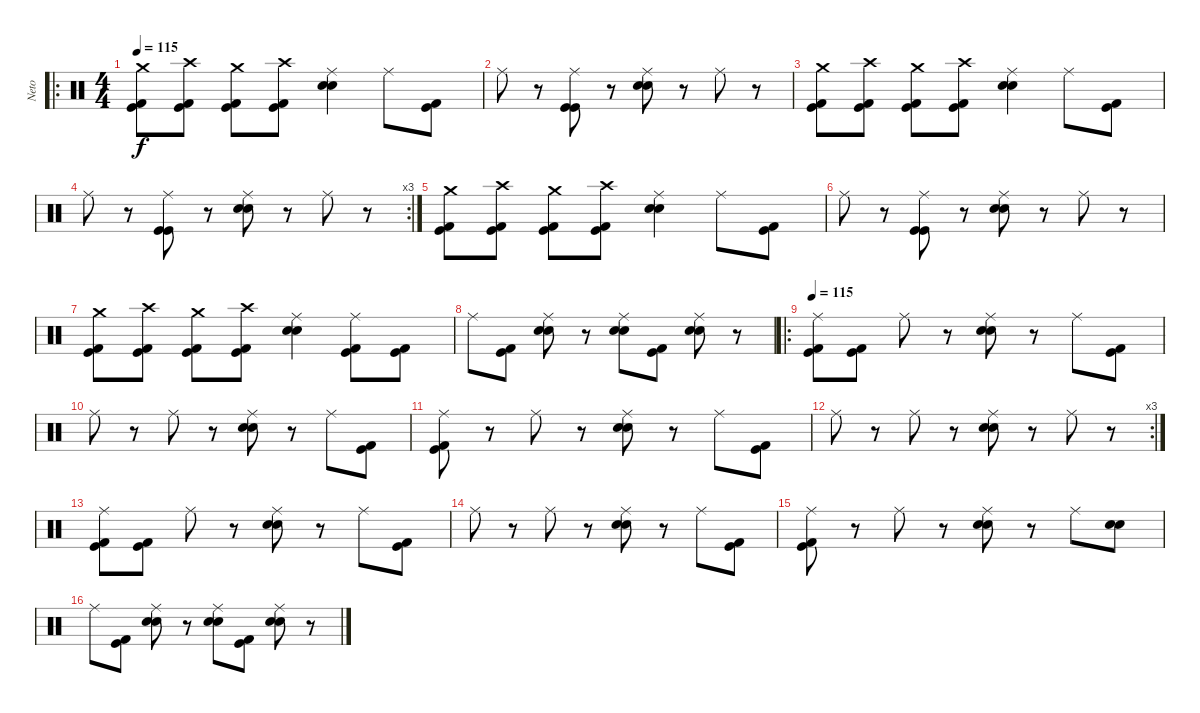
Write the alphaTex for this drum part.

\track ("Neto" "Neto") {instrument percussion}
\staff {score}
\articulation defaults
\ro
\ts (4 4)
\tempo 115
\clef neutral
\ks c
("Crash medium (hit)" "Kick (hit)" "Kick (hit) 2").8{dy f} ("Crash high (hit)" "Kick (hit)" "Kick (hit) 2").8 ("Crash medium (hit)" "Kick (hit)" "Kick (hit) 2").8 ("Crash high (hit)" "Kick (hit)" "Kick (hit) 2").8 ("Ride (middle)" "Snare (hit) 2" "Snare (hit) 2").4 "Ride (middle)".8 ("Kick (hit)" "Kick (hit) 2").8 |
"Ride (middle)".8 r.8 ("Ride (middle)" "Kick (hit)" "Kick (hit)").8 r.8 ("Ride (middle)" "Snare (hit) 2" "Snare (hit) 2").8 r.8 "Ride (middle)".8 r.8 |
("Crash medium (hit)" "Kick (hit)" "Kick (hit) 2").8 ("Crash high (hit)" "Kick (hit)" "Kick (hit) 2").8 ("Crash medium (hit)" "Kick (hit)" "Kick (hit) 2").8 ("Crash high (hit)" "Kick (hit)" "Kick (hit) 2").8 ("Ride (middle)" "Snare (hit) 2" "Snare (hit) 2").4 "Ride (middle)".8 ("Kick (hit)" "Kick (hit) 2").8 |
\rc 3 "Ride (middle)".8
r.8 ("Ride (middle)" "Kick (hit)" "Kick (hit)").8 r.8 ("Ride (middle)" "Snare (hit) 2" "Snare (hit) 2").8 r.8 "Ride (middle)".8 r.8 |
("Crash medium (hit)" "Kick (hit)" "Kick (hit) 2").8 ("Crash high (hit)" "Kick (hit)" "Kick (hit) 2").8 ("Crash medium (hit)" "Kick (hit)" "Kick (hit) 2").8 ("Crash high (hit)" "Kick (hit)" "Kick (hit) 2").8 ("Ride (middle)" "Snare (hit) 2" "Snare (hit) 2").4 "Ride (middle)".8 ("Kick (hit)" "Kick (hit) 2").8 |
"Ride (middle)".8 r.8 ("Ride (middle)" "Kick (hit)" "Kick (hit)").8 r.8 ("Ride (middle)" "Snare (hit) 2" "Snare (hit) 2").8 r.8 "Ride (middle)".8 r.8 |
("Crash medium (hit)" "Kick (hit)" "Kick (hit) 2").8 ("Crash high (hit)" "Kick (hit)" "Kick (hit) 2").8 ("Crash medium (hit)" "Kick (hit)" "Kick (hit) 2").8 ("Crash high (hit)" "Kick (hit)" "Kick (hit) 2").8 ("Ride (middle)" "Snare (hit) 2" "Snare (hit) 2").4 ("Ride (middle)" "Kick (hit)" "Kick (hit) 2").8 ("Kick (hit)" "Kick (hit) 2").8 |
"Ride (middle)".8 ("Kick (hit)" "Kick (hit) 2").8 ("Ride (middle)" "Snare (hit) 2" "Snare (hit) 2").8 r.8 ("Ride (middle)" "Snare (hit) 2" "Snare (hit) 2").8 ("Kick (hit)" "Kick (hit) 2").8 ("Ride (middle)" "Snare (hit) 2" "Snare (hit) 2").8 r.8 |
\ro
\tempo 115
("Ride (middle)" "Kick (hit)" "Kick (hit) 2").8 ("Kick (hit)" "Kick (hit) 2").8 "Ride (middle)".8 r.8 ("Ride (middle)" "Snare (hit) 2" "Snare (hit) 2").8 r.8 "Ride (middle)".8 ("Kick (hit)" "Kick (hit) 2").8 |
"Ride (middle)".8 r.8 "Ride (middle)".8 r.8 ("Ride (middle)" "Snare (hit) 2" "Snare (hit) 2").8 r.8 "Ride (middle)".8 ("Kick (hit)" "Kick (hit) 2").8 |
("Ride (middle)" "Kick (hit)" "Kick (hit) 2").8 r.8 "Ride (middle)".8 r.8 ("Ride (middle)" "Snare (hit) 2" "Snare (hit) 2").8 r.8 "Ride (middle)".8 ("Kick (hit)" "Kick (hit) 2").8 |
\rc 3 "Ride (middle)".8
r.8 "Ride (middle)".8 r.8 ("Ride (middle)" "Snare (hit) 2" "Snare (hit) 2").8 r.8 "Ride (middle)".8 r.8 |
("Ride (middle)" "Kick (hit)" "Kick (hit) 2").8 ("Kick (hit)" "Kick (hit) 2").8 "Ride (middle)".8 r.8 ("Ride (middle)" "Snare (hit) 2" "Snare (hit) 2").8 r.8 "Ride (middle)".8 ("Kick (hit)" "Kick (hit) 2").8 |
"Ride (middle)".8 r.8 "Ride (middle)".8 r.8 ("Ride (middle)" "Snare (hit) 2" "Snare (hit) 2").8 r.8 "Ride (middle)".8 ("Kick (hit)" "Kick (hit) 2").8 |
("Ride (middle)" "Kick (hit)" "Kick (hit) 2").8 r.8 "Ride (middle)".8 r.8 ("Ride (middle)" "Snare (hit) 2" "Snare (hit) 2").8 r.8 "Ride (middle)".8 ("Snare (hit) 2" "Snare (hit) 2").8 |
"Ride (middle)".8 ("Kick (hit)" "Kick (hit) 2").8 ("Ride (middle)" "Snare (hit) 2" "Snare (hit) 2").8 r.8 ("Ride (middle)" "Snare (hit) 2" "Snare (hit) 2").8 ("Kick (hit)" "Kick (hit) 2").8 ("Ride (middle)" "Snare (hit) 2" "Snare (hit) 2").8 r.8
